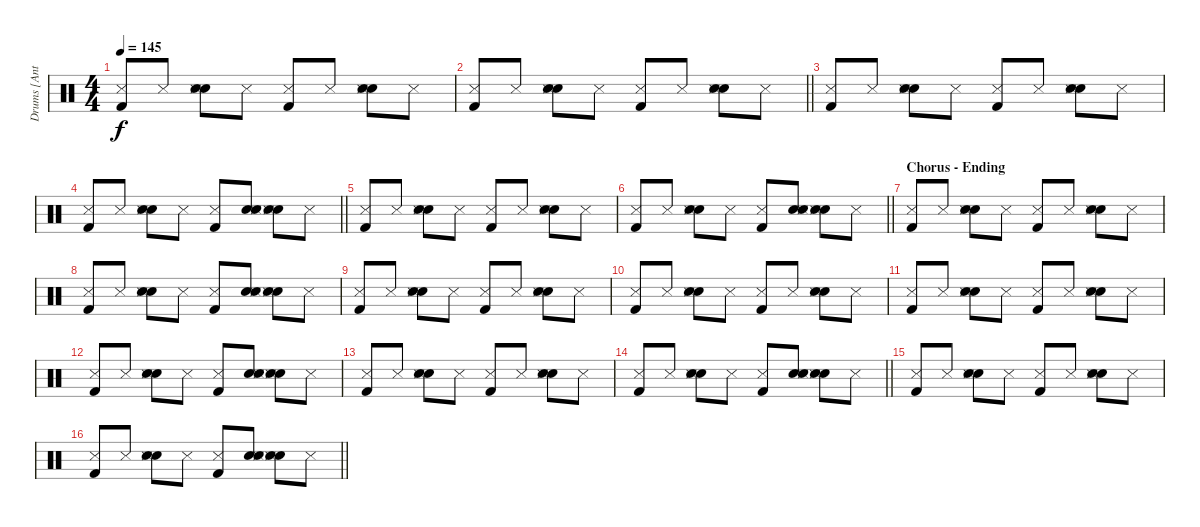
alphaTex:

\track ("Drums [Anthony Improgo]" "Drums [Ant") {instrument percussion}
\staff {score}
\articulation defaults
\ts (4 4)
\tempo 145
\clef neutral
\ks c
("Snare (side stick) 3" "Kick (hit) 2").8{dy f} "Snare (side stick) 3".8 ("Hand Clap (hit)" "Snare (hit) 2" "Snare (side stick) 3").8 "Snare (side stick) 3".8 ("Snare (side stick) 3" "Kick (hit) 2").8 "Snare (side stick) 3".8 ("Hand Clap (hit)" "Snare (hit) 2" "Snare (side stick) 3").8 "Snare (side stick) 3".8 |
\barLineRight lightlight
("Snare (side stick) 3" "Kick (hit) 2").8 "Snare (side stick) 3".8 ("Hand Clap (hit)" "Snare (hit) 2" "Snare (side stick) 3").8 "Snare (side stick) 3".8 ("Snare (side stick) 3" "Kick (hit) 2").8 "Snare (side stick) 3".8 ("Hand Clap (hit)" "Snare (hit) 2" "Snare (side stick) 3").8 "Snare (side stick) 3".8 |
("Snare (side stick) 3" "Kick (hit) 2").8 "Snare (side stick) 3".8 ("Hand Clap (hit)" "Snare (hit) 2" "Snare (side stick) 3").8 "Snare (side stick) 3".8 ("Snare (side stick) 3" "Kick (hit) 2").8 "Snare (side stick) 3".8 ("Hand Clap (hit)" "Snare (hit) 2" "Snare (side stick) 3").8 "Snare (side stick) 3".8 |
\barLineRight lightlight
("Snare (side stick) 3" "Kick (hit) 2").8 "Snare (side stick) 3".8 ("Hand Clap (hit)" "Snare (hit) 2" "Snare (side stick) 3").8 "Snare (side stick) 3".8 ("Snare (side stick) 3" "Kick (hit) 2").8 ("Hand Clap (hit)" "Snare (hit) 2" "Snare (side stick) 3").8 ("Hand Clap (hit)" "Snare (hit) 2" "Snare (side stick) 3").8 "Snare (side stick) 3".8 |
("Snare (side stick) 3" "Kick (hit) 2").8 "Snare (side stick) 3".8 ("Hand Clap (hit)" "Snare (hit) 2" "Snare (side stick) 3").8 "Snare (side stick) 3".8 ("Snare (side stick) 3" "Kick (hit) 2").8 "Snare (side stick) 3".8 ("Hand Clap (hit)" "Snare (hit) 2" "Snare (side stick) 3").8 "Snare (side stick) 3".8 |
\barLineRight lightlight
("Snare (side stick) 3" "Kick (hit) 2").8 "Snare (side stick) 3".8 ("Hand Clap (hit)" "Snare (hit) 2" "Snare (side stick) 3").8 "Snare (side stick) 3".8 ("Snare (side stick) 3" "Kick (hit) 2").8 ("Hand Clap (hit)" "Snare (hit) 2" "Snare (side stick) 3").8 ("Hand Clap (hit)" "Snare (hit) 2" "Snare (side stick) 3").8 "Snare (side stick) 3".8 |
\section ("" "Chorus - Ending")
("Snare (side stick) 3" "Kick (hit) 2").8 "Snare (side stick) 3".8 ("Hand Clap (hit)" "Snare (hit) 2" "Snare (side stick) 3").8 "Snare (side stick) 3".8 ("Snare (side stick) 3" "Kick (hit) 2").8 "Snare (side stick) 3".8 ("Hand Clap (hit)" "Snare (hit) 2" "Snare (side stick) 3").8 "Snare (side stick) 3".8 |
("Snare (side stick) 3" "Kick (hit) 2").8 "Snare (side stick) 3".8 ("Hand Clap (hit)" "Snare (hit) 2" "Snare (side stick) 3").8 "Snare (side stick) 3".8 ("Snare (side stick) 3" "Kick (hit) 2").8 ("Hand Clap (hit)" "Snare (hit) 2" "Snare (side stick) 3").8 ("Hand Clap (hit)" "Snare (hit) 2" "Snare (side stick) 3").8 "Snare (side stick) 3".8 |
("Snare (side stick) 3" "Kick (hit) 2").8 "Snare (side stick) 3".8 ("Hand Clap (hit)" "Snare (hit) 2" "Snare (side stick) 3").8 "Snare (side stick) 3".8 ("Snare (side stick) 3" "Kick (hit) 2").8 "Snare (side stick) 3".8 ("Hand Clap (hit)" "Snare (hit) 2" "Snare (side stick) 3").8 "Snare (side stick) 3".8 |
("Snare (side stick) 3" "Kick (hit) 2").8 "Snare (side stick) 3".8 ("Hand Clap (hit)" "Snare (hit) 2" "Snare (side stick) 3").8 "Snare (side stick) 3".8 ("Snare (side stick) 3" "Kick (hit) 2").8 "Snare (side stick) 3".8 ("Hand Clap (hit)" "Snare (hit) 2" "Snare (side stick) 3").8 "Snare (side stick) 3".8 |
("Snare (side stick) 3" "Kick (hit) 2").8 "Snare (side stick) 3".8 ("Hand Clap (hit)" "Snare (hit) 2" "Snare (side stick) 3").8 "Snare (side stick) 3".8 ("Snare (side stick) 3" "Kick (hit) 2").8 "Snare (side stick) 3".8 ("Hand Clap (hit)" "Snare (hit) 2" "Snare (side stick) 3").8 "Snare (side stick) 3".8 |
("Snare (side stick) 3" "Kick (hit) 2").8 "Snare (side stick) 3".8 ("Hand Clap (hit)" "Snare (hit) 2" "Snare (side stick) 3").8 "Snare (side stick) 3".8 ("Snare (side stick) 3" "Kick (hit) 2").8 ("Hand Clap (hit)" "Snare (hit) 2" "Snare (side stick) 3").8 ("Hand Clap (hit)" "Snare (hit) 2" "Snare (side stick) 3").8 "Snare (side stick) 3".8 |
("Snare (side stick) 3" "Kick (hit) 2").8 "Snare (side stick) 3".8 ("Hand Clap (hit)" "Snare (hit) 2" "Snare (side stick) 3").8 "Snare (side stick) 3".8 ("Snare (side stick) 3" "Kick (hit) 2").8 "Snare (side stick) 3".8 ("Hand Clap (hit)" "Snare (hit) 2" "Snare (side stick) 3").8 "Snare (side stick) 3".8 |
\barLineRight lightlight
("Snare (side stick) 3" "Kick (hit) 2").8 "Snare (side stick) 3".8 ("Hand Clap (hit)" "Snare (hit) 2" "Snare (side stick) 3").8 "Snare (side stick) 3".8 ("Snare (side stick) 3" "Kick (hit) 2").8 ("Hand Clap (hit)" "Snare (hit) 2" "Snare (side stick) 3").8 ("Hand Clap (hit)" "Snare (hit) 2" "Snare (side stick) 3").8 "Snare (side stick) 3".8 |
("Snare (side stick) 3" "Kick (hit) 2").8 "Snare (side stick) 3".8 ("Hand Clap (hit)" "Snare (hit) 2" "Snare (side stick) 3").8 "Snare (side stick) 3".8 ("Snare (side stick) 3" "Kick (hit) 2").8 "Snare (side stick) 3".8 ("Hand Clap (hit)" "Snare (hit) 2" "Snare (side stick) 3").8 "Snare (side stick) 3".8 |
\barLineRight lightlight
("Snare (side stick) 3" "Kick (hit) 2").8 "Snare (side stick) 3".8 ("Hand Clap (hit)" "Snare (hit) 2" "Snare (side stick) 3").8 "Snare (side stick) 3".8 ("Snare (side stick) 3" "Kick (hit) 2").8 ("Hand Clap (hit)" "Snare (hit) 2" "Snare (side stick) 3").8 ("Hand Clap (hit)" "Snare (hit) 2" "Snare (side stick) 3").8 "Snare (side stick) 3".8
